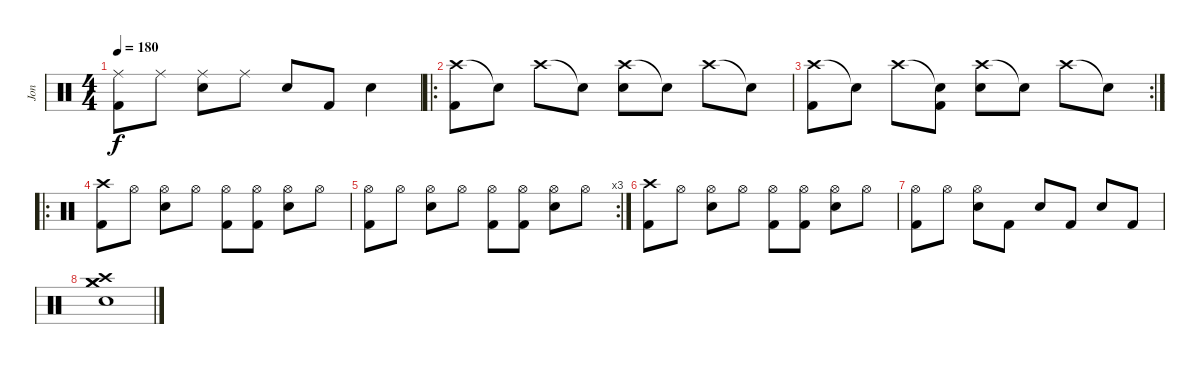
\track ("Jon" "Jon") {instrument percussion}
\staff {score}
\articulation defaults
\ts (4 4)
\tempo 180
\clef neutral
\ks c
("Ride (middle)" "Kick (hit) 2").8{dy f} "Ride (middle)".8 ("Ride (middle)" "Snare (hit) 2").8 "Ride (middle)".8 "Snare (hit) 2".8 "Kick (hit) 2".8 "Snare (hit) 2".4 |
\ro
("Crash high (hit)" "Kick (hit) 2").8 "Snare (hit)"{t}.8 "Crash high (hit)".8 "Snare (hit)"{t}.8 ("Crash high (hit)" "Snare (hit) 2").8 "Snare (hit)"{t}.8 "Crash high (hit)".8 "Snare (hit)"{t}.8 |
\rc 2
("Crash high (hit)" "Kick (hit) 2").8 "Snare (hit)"{t}.8 "Crash high (hit)".8 ("Snare (hit)"{t} "Kick (hit) 2").8 ("Crash high (hit)" "Snare (hit) 2").8 "Snare (hit)"{t}.8 "Crash high (hit)".8 "Snare (hit)"{t}.8 |
\ro
("Crash high (hit)" "Kick (hit) 2").8 "Hi-Hat (open)".8 ("Hi-Hat (open)" "Snare (hit) 2").8 "Hi-Hat (open)".8 ("Hi-Hat (open)" "Kick (hit) 2").8 ("Hi-Hat (open)" "Kick (hit) 2").8 ("Hi-Hat (open)" "Snare (hit) 2").8 "Hi-Hat (open)".8 |
\rc 3
("Hi-Hat (open)" "Kick (hit) 2").8 "Hi-Hat (open)".8 ("Hi-Hat (open)" "Snare (hit) 2").8 "Hi-Hat (open)".8 ("Hi-Hat (open)" "Kick (hit) 2").8 ("Hi-Hat (open)" "Kick (hit) 2").8 ("Hi-Hat (open)" "Snare (hit) 2").8 "Hi-Hat (open)".8 |
("Crash high (hit)" "Kick (hit) 2").8 "Hi-Hat (open)".8 ("Hi-Hat (open)" "Snare (hit) 2").8 "Hi-Hat (open)".8 ("Hi-Hat (open)" "Kick (hit) 2").8 ("Hi-Hat (open)" "Kick (hit) 2").8 ("Hi-Hat (open)" "Snare (hit) 2").8 "Hi-Hat (open)".8 |
("Hi-Hat (open)" "Kick (hit) 2").8 "Hi-Hat (open)".8 ("Hi-Hat (open)" "Snare (hit) 2").8 "Kick (hit) 2".8 "Snare (hit) 2".8 "Kick (hit) 2".8 "Snare (hit) 2".8 "Kick (hit) 2".8 |
("Crash medium (hit)" "Crash high (hit)" "Crash medium (hit)" "Snare (hit) 2").1
